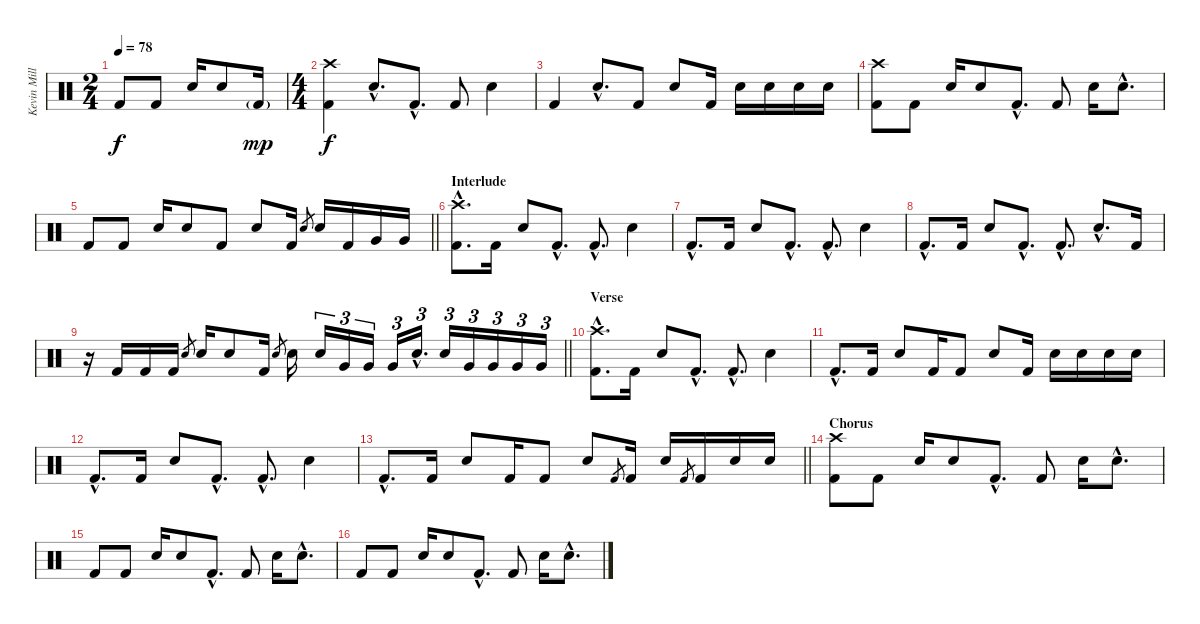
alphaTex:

\track ("Kevin Miller (Drums)" "Kevin Mill") {instrument percussion}
\staff {score}
\articulation defaults
\ts (2 4)
\tempo 78
\clef neutral
\ks c "Kick (hit) 2".8{dy f} "Kick (hit) 2".8 "Electric Snare (hit)".16 "Electric Snare (hit)".8 "Kick (hit) 2"{g}.16{dy mp}
|
\ts (4 4)
("Crash high (hit)" "Kick (hit) 2").4{dy f} "Electric Snare (hit)"{hac}.8{d} "Kick (hit) 2"{hac}.8{d} "Kick (hit) 2".8 "Electric Snare (hit)".4 |
"Kick (hit) 2".4 "Electric Snare (hit)"{hac}.8{d} "Kick (hit) 2".8 "Electric Snare (hit)".8 "Kick (hit) 2".16 "Electric Snare (hit)".16 "Electric Snare (hit)".16 "Electric Snare (hit)".16 "Electric Snare (hit)".16 |
("Crash high (hit)" "Kick (hit) 2").8 "Kick (hit) 2".8 "Electric Snare (hit)".16 "Electric Snare (hit)".8 "Kick (hit) 2"{hac}.8{d} "Kick (hit) 2".8 "Electric Snare (hit)".16 "Electric Snare (hit)"{hac}.8{d} |
\barLineRight lightlight "Kick (hit) 2".8 "Kick (hit) 2".8 "Electric Snare (hit)".16 "Electric Snare (hit)".8 "Kick (hit) 2".8 "Electric Snare (hit)".8 "Kick (hit) 2".16 "Electric Snare (hit)".8{gr} "Electric Snare (hit)".16 "Kick (hit) 2".16 "Very Low Tom (hit)".16 "Very Low Tom (hit)".16
|
\section ("" "Interlude")
("Crash high (hit)"{hac} "Kick (hit) 2"{hac}).8{d} "Kick (hit) 2".16 "Electric Snare (hit)".8 "Kick (hit) 2"{hac}.8{d} "Kick (hit) 2"{hac}.8{d} "Electric Snare (hit)".4 |
"Kick (hit) 2"{hac}.8{d} "Kick (hit) 2".16 "Electric Snare (hit)".8 "Kick (hit) 2"{hac}.8{d} "Kick (hit) 2"{hac}.8{d} "Electric Snare (hit)".4 |
"Kick (hit) 2"{hac}.8{d} "Kick (hit) 2".16 "Electric Snare (hit)".8 "Kick (hit) 2"{hac}.8{d} "Kick (hit) 2"{hac}.8{d} "Electric Snare (hit)"{hac}.8{d} "Kick (hit) 2".16 |
\barLineRight lightlight
r.16 "Kick (hit) 2".16 "Kick (hit) 2".16 "Kick (hit) 2".16 "Electric Snare (hit)".8{gr} "Electric Snare (hit)".16 "Electric Snare (hit)".8 "Kick (hit) 2".16 "Electric Snare (hit)".8{gr} "Electric Snare (hit)".16 "Electric Snare (hit)".16{tu (3 2)} "Very Low Tom (hit)".16{tu (3 2)} "Very Low Tom (hit)".16{tu (3 2)} "Very Low Tom (hit)".16{tu (3 2)} "Electric Snare (hit)"{hac}.16{d tu (3 2)} "Electric Snare (hit)".16{tu (3 2)} "Very Low Tom (hit)".16{tu (3 2)} "Very Low Tom (hit)".16{tu (3 2)} "Very Low Tom (hit)".16{tu (3 2)} "Very Low Tom (hit)".16{tu (3 2)} |
\section ("" "Verse")
("Crash high (hit)"{hac} "Kick (hit) 2"{hac}).8{d} "Kick (hit) 2".16 "Electric Snare (hit)".8 "Kick (hit) 2"{hac}.8{d} "Kick (hit) 2"{hac}.8{d} "Electric Snare (hit)".4 |
"Kick (hit) 2"{hac}.8{d} "Kick (hit) 2".16 "Electric Snare (hit)".8 "Kick (hit) 2".16 "Kick (hit) 2".8 "Electric Snare (hit)".8 "Kick (hit) 2".16 "Electric Snare (hit)".16 "Electric Snare (hit)".16 "Electric Snare (hit)".16 "Electric Snare (hit)".16 |
"Kick (hit) 2"{hac}.8{d} "Kick (hit) 2".16 "Electric Snare (hit)".8 "Kick (hit) 2"{hac}.8{d} "Kick (hit) 2"{hac}.8{d} "Electric Snare (hit)".4 |
\barLineRight lightlight "Kick (hit) 2"{hac}.8{d} "Kick (hit) 2".16 "Electric Snare (hit)".8 "Kick (hit) 2".16 "Kick (hit) 2".8 "Electric Snare (hit)".8 "Kick (hit) 2".8{gr} "Kick (hit) 2".16 "Electric Snare (hit)".16 "Kick (hit) 2".8{gr} "Kick (hit) 2".16 "Electric Snare (hit)".16 "Electric Snare (hit)".16
|
\section ("" "Chorus")
("Crash high (hit)" "Kick (hit) 2").8 "Kick (hit) 2".8 "Electric Snare (hit)".16 "Electric Snare (hit)".8 "Kick (hit) 2"{hac}.8{d} "Kick (hit) 2".8 "Electric Snare (hit)".16 "Electric Snare (hit)"{hac}.8{d} |
"Kick (hit) 2".8 "Kick (hit) 2".8 "Electric Snare (hit)".16 "Electric Snare (hit)".8 "Kick (hit) 2"{hac}.8{d} "Kick (hit) 2".8 "Electric Snare (hit)".16 "Electric Snare (hit)"{hac}.8{d} |
"Kick (hit) 2".8 "Kick (hit) 2".8 "Electric Snare (hit)".16 "Electric Snare (hit)".8 "Kick (hit) 2"{hac}.8{d} "Kick (hit) 2".8 "Electric Snare (hit)".16 "Electric Snare (hit)"{hac}.8{d}
